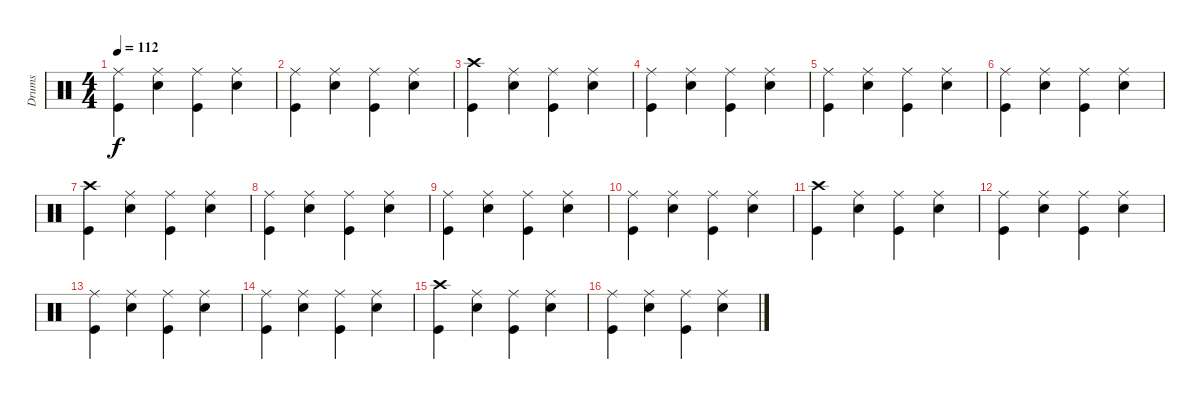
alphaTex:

\track ("Drums" "Drums") {instrument percussion}
\staff {score}
\articulation defaults
\ts (4 4)
\tempo 112
\clef neutral
\ks c
("Ride (middle)" "Kick (hit)").4{dy f} ("Ride (middle)" "Snare (hit) 2").4 ("Ride (middle)" "Kick (hit)").4 ("Ride (middle)" "Snare (hit) 2").4 |
("Ride (middle)" "Kick (hit)").4 ("Ride (middle)" "Snare (hit) 2").4 ("Ride (middle)" "Kick (hit)").4 ("Ride (middle)" "Snare (hit) 2").4 |
("Crash high (hit)" "Kick (hit)").4 ("Snare (hit) 2" "Ride (middle)").4 ("Ride (middle)" "Kick (hit)").4 ("Ride (middle)" "Snare (hit) 2").4 |
("Ride (middle)" "Kick (hit)").4 ("Ride (middle)" "Snare (hit) 2").4 ("Ride (middle)" "Kick (hit)").4 ("Ride (middle)" "Snare (hit) 2").4 |
("Ride (middle)" "Kick (hit)").4 ("Ride (middle)" "Snare (hit) 2").4 ("Ride (middle)" "Kick (hit)").4 ("Ride (middle)" "Snare (hit) 2").4 |
("Ride (middle)" "Kick (hit)").4 ("Ride (middle)" "Snare (hit) 2").4 ("Ride (middle)" "Kick (hit)").4 ("Ride (middle)" "Snare (hit) 2").4 |
("Crash high (hit)" "Kick (hit)").4 ("Snare (hit) 2" "Ride (middle)").4 ("Ride (middle)" "Kick (hit)").4 ("Ride (middle)" "Snare (hit) 2").4 |
("Ride (middle)" "Kick (hit)").4 ("Ride (middle)" "Snare (hit) 2").4 ("Ride (middle)" "Kick (hit)").4 ("Ride (middle)" "Snare (hit) 2").4 |
("Ride (middle)" "Kick (hit)").4 ("Ride (middle)" "Snare (hit) 2").4 ("Ride (middle)" "Kick (hit)").4 ("Ride (middle)" "Snare (hit) 2").4 |
("Ride (middle)" "Kick (hit)").4 ("Ride (middle)" "Snare (hit) 2").4 ("Ride (middle)" "Kick (hit)").4 ("Ride (middle)" "Snare (hit) 2").4 |
("Crash high (hit)" "Kick (hit)").4 ("Snare (hit) 2" "Ride (middle)").4 ("Ride (middle)" "Kick (hit)").4 ("Ride (middle)" "Snare (hit) 2").4 |
("Ride (middle)" "Kick (hit)").4{volume 11} ("Ride (middle)" "Snare (hit) 2").4 ("Ride (middle)" "Kick (hit)").4 ("Ride (middle)" "Snare (hit) 2").4 |
("Ride (middle)" "Kick (hit)").4 ("Ride (middle)" "Snare (hit) 2").4{volume 10} ("Ride (middle)" "Kick (hit)").4 ("Ride (middle)" "Snare (hit) 2").4 |
("Ride (middle)" "Kick (hit)").4 ("Ride (middle)" "Snare (hit) 2").4 ("Ride (middle)" "Kick (hit)").4 ("Ride (middle)" "Snare (hit) 2").4{volume 9} |
("Crash high (hit)" "Kick (hit)").4 ("Snare (hit) 2" "Ride (middle)").4{volume 8} ("Ride (middle)" "Kick (hit)").4 ("Ride (middle)" "Snare (hit) 2").4 |
("Ride (middle)" "Kick (hit)").4 ("Ride (middle)" "Snare (hit) 2").4 ("Ride (middle)" "Kick (hit)").4{volume 6} ("Ride (middle)" "Snare (hit) 2").4
